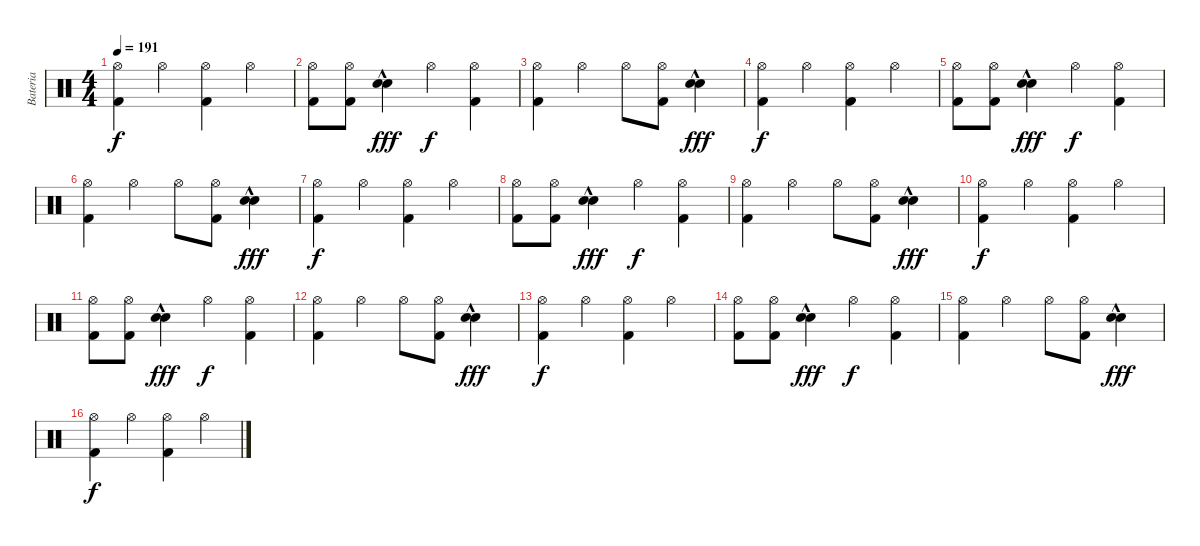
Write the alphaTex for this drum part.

\track ("Bateria" "Bateria") {instrument percussion}
\staff {score}
\articulation defaults
\ts (4 4)
\tempo 191
\clef neutral
\ks c
("Hi-Hat (open)" "Kick (hit) 2").4{dy f} "Hi-Hat (open)".4 ("Hi-Hat (open)" "Kick (hit) 2").4 "Hi-Hat (open)".4 |
("Hi-Hat (open)" "Kick (hit) 2").8 ("Hi-Hat (open)" "Kick (hit) 2").8 ("Electric Snare (hit)"{hac} "Electric Snare (hit)"{hac}).4{dy fff} "Hi-Hat (open)".4{dy f} ("Hi-Hat (open)" "Kick (hit) 2").4 |
("Hi-Hat (open)" "Kick (hit) 2").4 "Hi-Hat (open)".4 "Hi-Hat (open)".8 ("Hi-Hat (open)" "Kick (hit) 2").8 ("Electric Snare (hit)"{hac} "Electric Snare (hit)"{hac}).4{dy fff} |
("Hi-Hat (open)" "Kick (hit) 2").4{dy f} "Hi-Hat (open)".4 ("Hi-Hat (open)" "Kick (hit) 2").4 "Hi-Hat (open)".4 |
("Hi-Hat (open)" "Kick (hit) 2").8 ("Hi-Hat (open)" "Kick (hit) 2").8 ("Electric Snare (hit)"{hac} "Electric Snare (hit)"{hac}).4{dy fff} "Hi-Hat (open)".4{dy f} ("Hi-Hat (open)" "Kick (hit) 2").4 |
("Hi-Hat (open)" "Kick (hit) 2").4 "Hi-Hat (open)".4 "Hi-Hat (open)".8 ("Hi-Hat (open)" "Kick (hit) 2").8 ("Electric Snare (hit)"{hac} "Electric Snare (hit)"{hac}).4{dy fff} |
("Hi-Hat (open)" "Kick (hit) 2").4{dy f} "Hi-Hat (open)".4 ("Hi-Hat (open)" "Kick (hit) 2").4 "Hi-Hat (open)".4 |
("Hi-Hat (open)" "Kick (hit) 2").8 ("Hi-Hat (open)" "Kick (hit) 2").8 ("Electric Snare (hit)"{hac} "Electric Snare (hit)"{hac}).4{dy fff} "Hi-Hat (open)".4{dy f} ("Hi-Hat (open)" "Kick (hit) 2").4 |
("Hi-Hat (open)" "Kick (hit) 2").4 "Hi-Hat (open)".4 "Hi-Hat (open)".8 ("Hi-Hat (open)" "Kick (hit) 2").8 ("Electric Snare (hit)"{hac} "Electric Snare (hit)"{hac}).4{dy fff} |
("Hi-Hat (open)" "Kick (hit) 2").4{dy f} "Hi-Hat (open)".4 ("Hi-Hat (open)" "Kick (hit) 2").4 "Hi-Hat (open)".4 |
("Hi-Hat (open)" "Kick (hit) 2").8 ("Hi-Hat (open)" "Kick (hit) 2").8 ("Electric Snare (hit)"{hac} "Electric Snare (hit)"{hac}).4{dy fff} "Hi-Hat (open)".4{dy f} ("Hi-Hat (open)" "Kick (hit) 2").4 |
("Hi-Hat (open)" "Kick (hit) 2").4 "Hi-Hat (open)".4 "Hi-Hat (open)".8 ("Hi-Hat (open)" "Kick (hit) 2").8 ("Electric Snare (hit)"{hac} "Electric Snare (hit)"{hac}).4{dy fff} |
("Hi-Hat (open)" "Kick (hit) 2").4{dy f} "Hi-Hat (open)".4 ("Hi-Hat (open)" "Kick (hit) 2").4 "Hi-Hat (open)".4 |
("Hi-Hat (open)" "Kick (hit) 2").8 ("Hi-Hat (open)" "Kick (hit) 2").8 ("Electric Snare (hit)"{hac} "Electric Snare (hit)"{hac}).4{dy fff} "Hi-Hat (open)".4{dy f} ("Hi-Hat (open)" "Kick (hit) 2").4 |
("Hi-Hat (open)" "Kick (hit) 2").4 "Hi-Hat (open)".4 "Hi-Hat (open)".8 ("Hi-Hat (open)" "Kick (hit) 2").8 ("Electric Snare (hit)"{hac} "Electric Snare (hit)"{hac}).4{dy fff} |
("Hi-Hat (open)" "Kick (hit) 2").4{dy f} "Hi-Hat (open)".4 ("Hi-Hat (open)" "Kick (hit) 2").4 "Hi-Hat (open)".4
